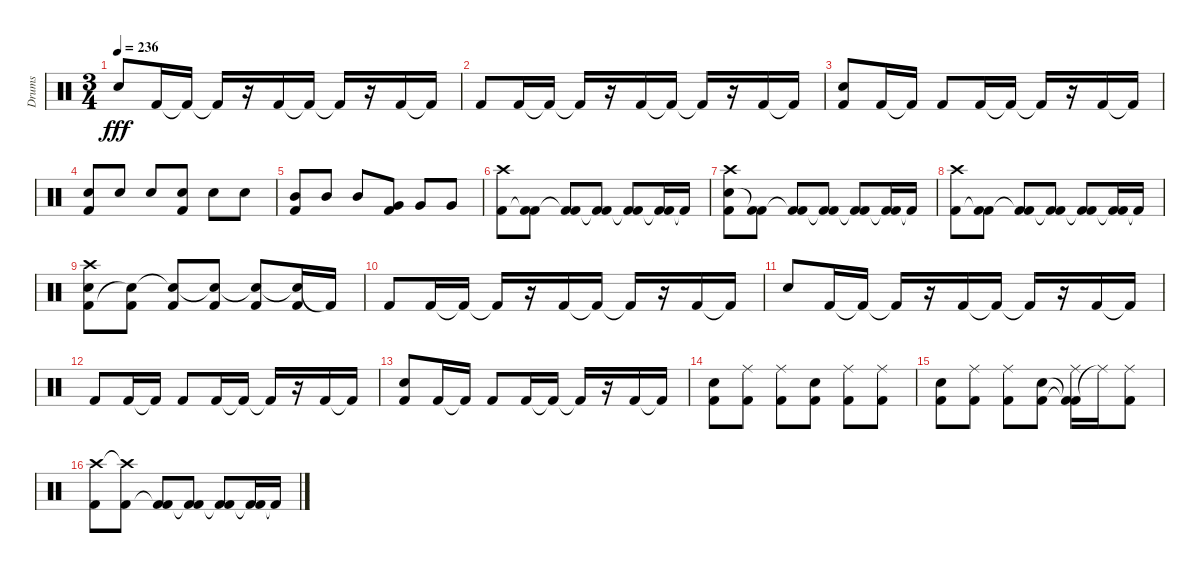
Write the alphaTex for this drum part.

\track ("Drums" "Drums") {instrument percussion}
\staff {score}
\articulation defaults
\ts (3 4)
\tempo 236
\clef neutral
\ks c "Snare (hit) 2".8{dy fff} "Kick (hit) 2".16 "Kick (hit) 2"{t}.16 "Kick (hit) 2"{t}.16
r.16 "Kick (hit) 2".16 "Kick (hit) 2"{t}.16 "Kick (hit) 2"{t}.16 r.16 "Kick (hit) 2".16 "Kick (hit) 2"{t}.16 |
"Kick (hit) 2".8 "Kick (hit) 2".16 "Kick (hit) 2"{t}.16 "Kick (hit) 2"{t}.16 r.16 "Kick (hit) 2".16 "Kick (hit) 2"{t}.16 "Kick (hit) 2"{t}.16 r.16 "Kick (hit) 2".16 "Kick (hit) 2"{t}.16 |
("Kick (hit) 2" "Snare (hit) 2").8 "Kick (hit) 2".16 "Kick (hit) 2"{t}.16 "Kick (hit) 2".8 "Kick (hit) 2".16 "Kick (hit) 2"{t}.16 "Kick (hit) 2"{t}.16 r.16 "Kick (hit) 2".16 "Kick (hit) 2"{t}.16 |
("Kick (hit) 2" "Snare (hit) 2").8 "Snare (hit) 2".8 "Snare (hit) 2".8 ("Kick (hit) 2" "Snare (hit) 2").8 "Snare (hit) 2".8 "Snare (hit) 2".8 |
("Kick (hit) 2" "Mid Tom (hit)").8 "Mid Tom (hit)".8 "Mid Tom (hit)".8 ("Kick (hit) 2" "Very Low Tom (hit)").8 "Very Low Tom (hit)".8 "Very Low Tom (hit)".8 |
("Kick (hit) 2" "Crash high (hit)").8 ("Kick (hit) 2"{t} "Kick (hit) 2").8 ("Kick (hit) 2"{t} "Kick (hit) 2").8 ("Kick (hit) 2"{t} "Kick (hit) 2").8 ("Kick (hit) 2"{t} "Kick (hit) 2").8 ("Kick (hit) 2"{t} "Kick (hit) 2").16 "Kick (hit) 2"{t}.16 |
("Snare (hit) 2" "Kick (hit) 2" "Crash high (hit)").8 ("Kick (hit) 2"{t} "Kick (hit) 2").8 ("Kick (hit) 2"{t} "Kick (hit) 2").8 ("Kick (hit) 2"{t} "Kick (hit) 2").8 ("Kick (hit) 2"{t} "Kick (hit) 2").8 ("Kick (hit) 2"{t} "Kick (hit) 2").16 "Kick (hit) 2"{t}.16 |
("Kick (hit) 2" "Crash high (hit)").8 ("Kick (hit) 2"{t} "Kick (hit) 2").8 ("Kick (hit) 2"{t} "Kick (hit) 2").8 ("Kick (hit) 2"{t} "Kick (hit) 2").8 ("Kick (hit) 2"{t} "Kick (hit) 2").8 ("Kick (hit) 2"{t} "Kick (hit) 2").16 "Kick (hit) 2"{t}.16 |
("Kick (hit) 2" "Snare (hit) 2" "Crash high (hit)").8 ("Snare (hit) 2"{t} "Kick (hit) 2").8 ("Snare (hit) 2"{t} "Kick (hit) 2").8 ("Snare (hit) 2"{t} "Kick (hit) 2").8 ("Snare (hit) 2"{t} "Kick (hit) 2").8 ("Snare (hit) 2"{t} "Kick (hit) 2").16 "Kick (hit) 2"{t}.16 |
"Kick (hit) 2".8 "Kick (hit) 2".16 "Kick (hit) 2"{t}.16 "Kick (hit) 2"{t}.16 r.16 "Kick (hit) 2".16 "Kick (hit) 2"{t}.16 "Kick (hit) 2"{t}.16 r.16 "Kick (hit) 2".16 "Kick (hit) 2"{t}.16 |
"Snare (hit) 2".8 "Kick (hit) 2".16 "Kick (hit) 2"{t}.16 "Kick (hit) 2"{t}.16 r.16 "Kick (hit) 2".16 "Kick (hit) 2"{t}.16 "Kick (hit) 2"{t}.16 r.16 "Kick (hit) 2".16 "Kick (hit) 2"{t}.16 |
"Kick (hit) 2".8 "Kick (hit) 2".16 "Kick (hit) 2"{t}.16 "Kick (hit) 2".8 "Kick (hit) 2".16 "Kick (hit) 2"{t}.16 "Kick (hit) 2"{t}.16 r.16 "Kick (hit) 2".16 "Kick (hit) 2"{t}.16 |
("Kick (hit) 2" "Snare (hit) 2").8 "Kick (hit) 2".16 "Kick (hit) 2"{t}.16 "Kick (hit) 2".8 "Kick (hit) 2".16 "Kick (hit) 2"{t}.16 "Kick (hit) 2"{t}.16 r.16 "Kick (hit) 2".16 "Kick (hit) 2"{t}.16 |
("Kick (hit) 2" "Snare (hit) 2").8 ("Kick (hit) 2" "Ride (middle)").8 ("Kick (hit) 2" "Ride (middle)").8 ("Kick (hit) 2" "Snare (hit) 2").8 ("Kick (hit) 2" "Ride (middle)").8 ("Kick (hit) 2" "Ride (middle)").8 |
("Kick (hit) 2" "Snare (hit) 2").8 ("Kick (hit) 2" "Ride (middle)").8 ("Kick (hit) 2" "Ride (middle)").8 ("Kick (hit) 2" "Snare (hit) 2").8 ("Kick (hit) 2"{t} "Kick (hit) 2"{t} "Ride (middle)").16 "Ride (middle)"{t}.16 ("Kick (hit) 2" "Ride (middle)").8 |
("Kick (hit) 2" "Crash high (hit)").8 ("Kick (hit) 2" "Crash high (hit)"{t}).8 ("Kick (hit) 2"{t} "Kick (hit) 2").8 ("Kick (hit) 2"{t} "Kick (hit) 2").8 ("Kick (hit) 2"{t} "Kick (hit) 2").8 ("Kick (hit) 2"{t} "Kick (hit) 2").16 "Kick (hit) 2"{t}.16
